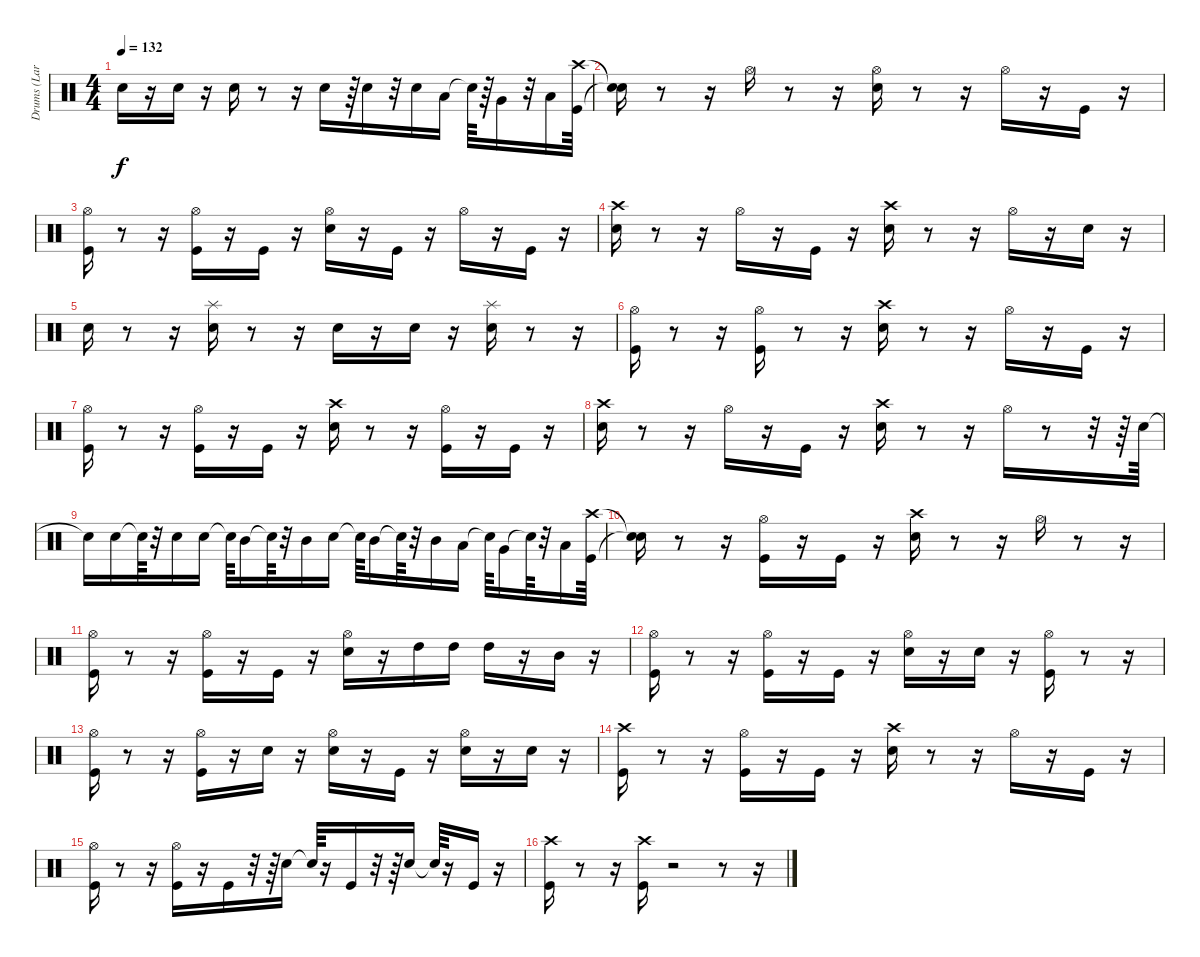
\track ("Drums (Lars)" "Drums (Lar") {instrument percussion}
\staff {score}
\articulation defaults
\ts (4 4)
\tempo 132
\clef neutral
\ks c "Snare (hit) 2".16{dy f}
r.16 "Snare (hit) 2".16 r.16 "Snare (hit) 2".16 r.8 r.16 "Snare (hit) 2".16 r.64 "Snare (hit) 2".16 r.32 "Snare (hit) 2".16 "Low Tom (hit)".16 "Snare (hit)"{t}.64 r.64 "Very Low Tom (hit)".16 r.32 "Low Floor Tom (hit)".16 ("Crash high (hit)" "Kick (hit)").64 |
("Snare (hit)"{t} "Snare (hit)"{t}).16 r.8 r.16 "Hi-Hat (open)".16 r.8 r.16 ("Hi-Hat (open)" "Snare (hit) 2").16 r.8 r.16 "Hi-Hat (open)".16 r.16 "Kick (hit)".16 r.16 |
("Hi-Hat (open)" "Kick (hit)").16 r.8 r.16 ("Hi-Hat (open)" "Kick (hit)").16 r.16 "Kick (hit)".16 r.16 ("Hi-Hat (open)" "Snare (hit) 2").16 r.16 "Kick (hit)".16 r.16 "Hi-Hat (open)".16 r.16 "Kick (hit)".16 r.16 |
("Snare (hit) 2" "Crash high (hit)").16 r.8 r.16 "Hi-Hat (open)".16 r.16 "Kick (hit)".16 r.16 ("Crash high (hit)" "Snare (hit) 2").16 r.8 r.16 "Hi-Hat (open)".16 r.16 "Snare (hit) 2".16 r.16 |
"Snare (hit) 2".16 r.8 r.16 ("Snare (hit) 2" "Splash (hit)").16 r.8 r.16 "Snare (hit) 2".16 r.16 "Snare (hit) 2".16 r.16 ("Snare (hit) 2" "Splash (hit)").16 r.8 r.16 |
("Kick (hit)" "Hi-Hat (open)").16 r.8 r.16 ("Hi-Hat (open)" "Kick (hit)").16 r.8 r.16 ("Snare (hit) 2" "Crash high (hit)").16 r.8 r.16 "Hi-Hat (open)".16 r.16 "Kick (hit)".16 r.16 |
("Hi-Hat (open)" "Kick (hit)").16 r.8 r.16 ("Hi-Hat (open)" "Kick (hit)").16 r.16 "Kick (hit)".16 r.16 ("Snare (hit) 2" "Crash high (hit)").16 r.8 r.16 ("Hi-Hat (open)" "Kick (hit)").16 r.16 "Kick (hit)".16 r.16 |
("Snare (hit) 2" "Crash high (hit)").16 r.8 r.16 "Hi-Hat (open)".16 r.16 "Kick (hit)".16 r.16 ("Snare (hit) 2" "Crash high (hit)").16 r.8 r.16 "Hi-Hat (open)".16 r.8 r.32 r.64 "Snare (hit) 2".64 |
"Snare (hit)"{t}.16 "Snare (hit) 2".16 "Snare (hit)"{t}.64 r.32 "Snare (hit) 2".16 "Snare (hit) 2".16 "Snare (hit)"{t}.64 "Mid Tom (hit)".16 "Snare (hit)"{t}.64 r.32 "Mid Tom (hit)".16 "Snare (hit) 2".16 "Snare (hit)"{t}.64 "Mid Tom (hit)".16 "Snare (hit)"{t}.64 r.32 "Mid Tom (hit)".16 "Low Tom (hit)".16 "Snare (hit)"{t}.64 "Very Low Tom (hit)".16 "Snare (hit)"{t}.64 r.32 "Low Floor Tom (hit)".16 ("Kick (hit)" "Crash high (hit)").64 |
("Snare (hit)"{t} "Snare (hit)"{t}).16 r.8 r.16 ("Hi-Hat (open)" "Kick (hit)").16 r.16 "Kick (hit)".16 r.16 ("Snare (hit) 2" "Crash high (hit)").16 r.8 r.16 "Hi-Hat (open)".16 r.8 r.16 |
("Hi-Hat (open)" "Kick (hit)").16 r.8 r.16 ("Hi-Hat (open)" "Kick (hit)").16 r.16 "Kick (hit)".16 r.16 ("Snare (hit) 2" "Hi-Hat (open)").16 r.16 "High Tom (hit)".16 "High Tom (hit)".16 "High Tom (hit)".16 r.16 "Mid Tom (hit)".16 r.16 |
("Hi-Hat (open)" "Kick (hit)").16 r.8 r.16 ("Hi-Hat (open)" "Kick (hit)").16 r.16 "Kick (hit)".16 r.16 ("Hi-Hat (open)" "Snare (hit) 2").16 r.16 "Snare (hit) 2".16 r.16 ("Hi-Hat (open)" "Kick (hit)").16 r.8 r.16 |
("Hi-Hat (open)" "Kick (hit)").16 r.8 r.16 ("Hi-Hat (open)" "Kick (hit)").16 r.16 "Snare (hit) 2".16 r.16 ("Hi-Hat (open)" "Snare (hit) 2").16 r.16 "Kick (hit)".16 r.16 ("Hi-Hat (open)" "Snare (hit) 2").16 r.16 "Snare (hit) 2".16 r.16 |
("Kick (hit)" "Crash high (hit)").16 r.8 r.16 ("Kick (hit)" "Hi-Hat (open)").16 r.16 "Kick (hit)".16 r.16 ("Crash high (hit)" "Snare (hit) 2").16 r.8 r.16 "Hi-Hat (open)".16 r.16 "Kick (hit)".16 r.16 |
("Hi-Hat (open)" "Kick (hit)").16 r.8 r.16 ("Hi-Hat (open)" "Kick (hit)").16 r.16 "Kick (hit)".16 r.32 r.64 "Snare (hit) 2".16 "Snare (hit)"{t}.64 r.16 "Kick (hit)".16 r.32 r.64 "Snare (hit) 2".16 "Snare (hit)"{t}.64 r.16 "Kick (hit)".16 r.16 |
("Kick (hit)" "Crash high (hit)").16 r.8 r.16 ("Crash high (hit)" "Kick (hit)").16 r.2 r.8 r.16
